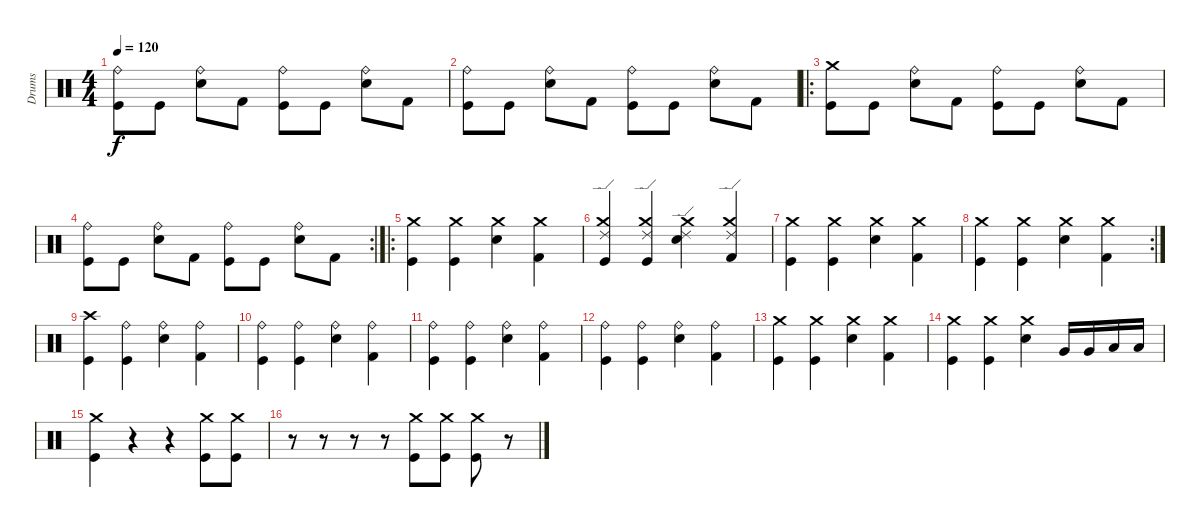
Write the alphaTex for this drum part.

\track ("Drums" "Drums") {instrument percussion}
\staff {score}
\articulation defaults
\ts (4 4)
\tempo 120
\clef neutral
\ks c
("Ride (bell)" "Kick (hit)").8{dy f} "Kick (hit)".8 ("Ride (bell)" "Electric Snare (hit)").8 "Kick (hit) 2".8 ("Ride (bell)" "Kick (hit)").8 "Kick (hit)".8 ("Ride (bell)" "Electric Snare (hit)").8 "Kick (hit) 2".8 |
("Ride (bell)" "Kick (hit)").8 "Kick (hit)".8 ("Ride (bell)" "Electric Snare (hit)").8 "Kick (hit) 2".8 ("Ride (bell)" "Kick (hit)").8 "Kick (hit)".8 ("Ride (bell)" "Electric Snare (hit)").8 "Kick (hit) 2".8 |
\ro
("Crash medium (hit)" "Kick (hit)").8 "Kick (hit)".8 ("Ride (bell)" "Electric Snare (hit)").8 "Kick (hit) 2".8 ("Ride (bell)" "Kick (hit)").8 "Kick (hit)".8 ("Ride (bell)" "Electric Snare (hit)").8 "Kick (hit) 2".8 |
\rc 2
("Ride (bell)" "Kick (hit)").8 "Kick (hit)".8 ("Ride (bell)" "Electric Snare (hit)").8 "Kick (hit) 2".8 ("Ride (bell)" "Kick (hit)").8 "Kick (hit)".8 ("Ride (bell)" "Electric Snare (hit)").8 "Kick (hit) 2".8 |
\ro
("Crash medium (hit)" "Kick (hit)").4 ("Crash medium (hit)" "Kick (hit)").4 ("Crash medium (hit)" "Electric Snare (hit)").4 ("Crash medium (hit)" "Kick (hit) 2").4 |
("Crash medium (hit)" "Ride (edge) 2" "Kick (hit)").4 ("Crash medium (hit)" "Ride (edge) 2" "Kick (hit)").4 ("Crash medium (hit)" "Ride (edge) 2" "Electric Snare (hit)").4 ("Crash medium (hit)" "Ride (edge) 2" "Kick (hit) 2").4 |
("Crash medium (hit)" "Kick (hit)").4 ("Crash medium (hit)" "Kick (hit)").4 ("Crash medium (hit)" "Electric Snare (hit)").4 ("Crash medium (hit)" "Kick (hit) 2").4 |
\rc 2
("Crash medium (hit)" "Kick (hit)").4 ("Crash medium (hit)" "Kick (hit)").4 ("Crash medium (hit)" "Electric Snare (hit)").4 ("Crash medium (hit)" "Kick (hit) 2").4 |
("Crash high (hit)" "Kick (hit)").4 ("Ride (bell)" "Kick (hit)").4 ("Ride (bell)" "Electric Snare (hit)").4 ("Ride (bell)" "Kick (hit) 2").4 |
("Ride (bell)" "Kick (hit)").4 ("Ride (bell)" "Kick (hit)").4 ("Ride (bell)" "Electric Snare (hit)").4 ("Ride (bell)" "Kick (hit) 2").4 |
("Ride (bell)" "Kick (hit)").4 ("Ride (bell)" "Kick (hit)").4 ("Ride (bell)" "Electric Snare (hit)").4 ("Ride (bell)" "Kick (hit) 2").4 |
("Ride (bell)" "Kick (hit)").4 ("Ride (bell)" "Kick (hit)").4 ("Ride (bell)" "Electric Snare (hit)").4 ("Ride (bell)" "Kick (hit) 2").4 |
("Crash medium (hit)" "Kick (hit)").4 ("Crash medium (hit)" "Kick (hit)").4 ("Crash medium (hit)" "Electric Snare (hit)").4 ("Crash medium (hit)" "Kick (hit) 2").4 |
("Crash medium (hit)" "Kick (hit)").4 ("Crash medium (hit)" "Kick (hit)").4 ("Crash medium (hit)" "Electric Snare (hit)").4 "Very Low Tom (hit)".16 "Very Low Tom (hit)".16 "Low Floor Tom (hit)".16 "Low Floor Tom (hit)".16 |
("Crash medium (hit)" "Kick (hit)").4 r.4 r.4 ("Crash medium (hit)" "Kick (hit)").8 ("Crash medium (hit)" "Kick (hit)").8 |
r.8 r.8 r.8 r.8 ("Crash medium (hit)" "Kick (hit)").8 ("Crash medium (hit)" "Kick (hit)").8 ("Crash medium (hit)" "Kick (hit)").8 r.8
